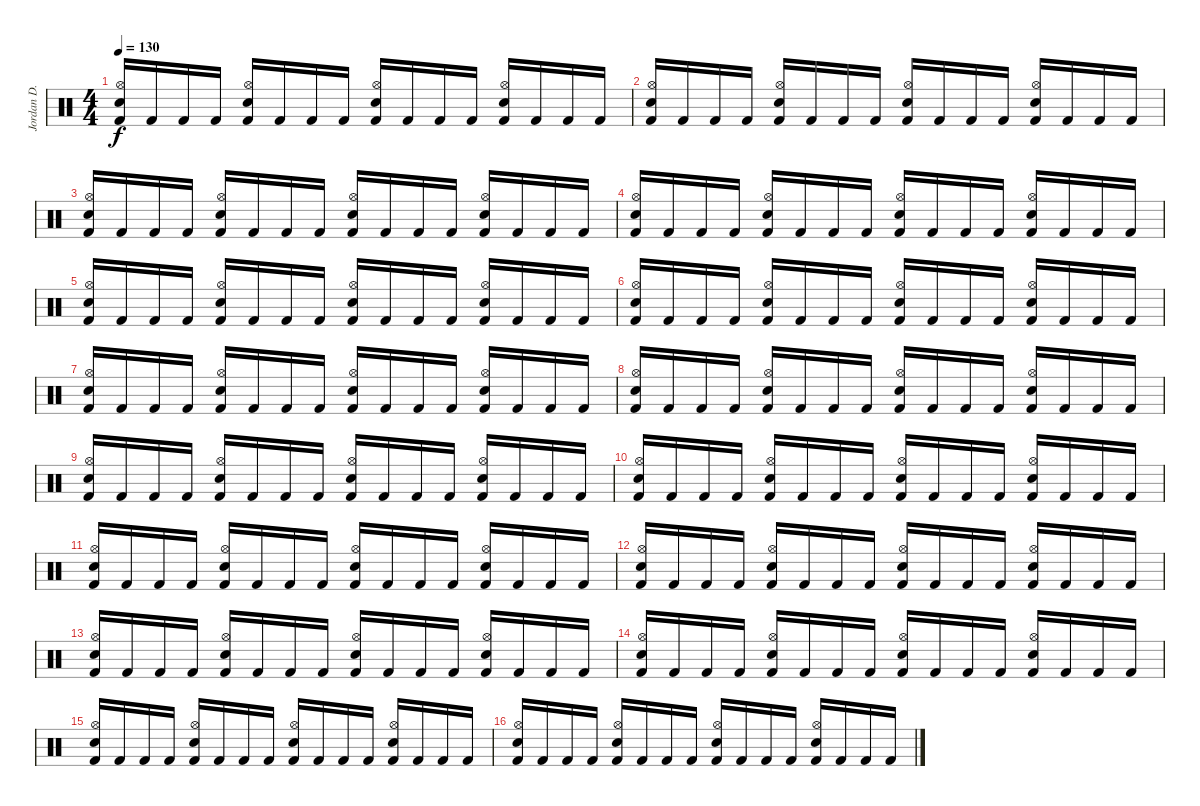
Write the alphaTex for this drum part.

\track ("Jordan D. Samolesky" "Jordan D. ") {instrument percussion}
\staff {score}
\articulation defaults
\ts (4 4)
\tempo 130
\clef neutral
\ks c
("Electric Snare (hit)" "Hi-Hat (open)" "Kick (hit) 2").16{dy f} "Kick (hit) 2".16 "Kick (hit) 2".16 "Kick (hit) 2".16 ("Electric Snare (hit)" "Hi-Hat (open)" "Kick (hit) 2").16 "Kick (hit) 2".16 "Kick (hit) 2".16 "Kick (hit) 2".16 ("Electric Snare (hit)" "Hi-Hat (open)" "Kick (hit) 2").16 "Kick (hit) 2".16 "Kick (hit) 2".16 "Kick (hit) 2".16 ("Electric Snare (hit)" "Hi-Hat (open)" "Kick (hit) 2").16 "Kick (hit) 2".16 "Kick (hit) 2".16 "Kick (hit) 2".16 |
("Electric Snare (hit)" "Hi-Hat (open)" "Kick (hit) 2").16 "Kick (hit) 2".16 "Kick (hit) 2".16 "Kick (hit) 2".16 ("Electric Snare (hit)" "Hi-Hat (open)" "Kick (hit) 2").16 "Kick (hit) 2".16 "Kick (hit) 2".16 "Kick (hit) 2".16 ("Electric Snare (hit)" "Hi-Hat (open)" "Kick (hit) 2").16 "Kick (hit) 2".16 "Kick (hit) 2".16 "Kick (hit) 2".16 ("Electric Snare (hit)" "Hi-Hat (open)" "Kick (hit) 2").16 "Kick (hit) 2".16 "Kick (hit) 2".16 "Kick (hit) 2".16 |
("Electric Snare (hit)" "Hi-Hat (open)" "Kick (hit) 2").16 "Kick (hit) 2".16 "Kick (hit) 2".16 "Kick (hit) 2".16 ("Electric Snare (hit)" "Hi-Hat (open)" "Kick (hit) 2").16 "Kick (hit) 2".16 "Kick (hit) 2".16 "Kick (hit) 2".16 ("Electric Snare (hit)" "Hi-Hat (open)" "Kick (hit) 2").16 "Kick (hit) 2".16 "Kick (hit) 2".16 "Kick (hit) 2".16 ("Electric Snare (hit)" "Hi-Hat (open)" "Kick (hit) 2").16 "Kick (hit) 2".16 "Kick (hit) 2".16 "Kick (hit) 2".16 |
("Electric Snare (hit)" "Hi-Hat (open)" "Kick (hit) 2").16 "Kick (hit) 2".16 "Kick (hit) 2".16 "Kick (hit) 2".16 ("Electric Snare (hit)" "Hi-Hat (open)" "Kick (hit) 2").16 "Kick (hit) 2".16 "Kick (hit) 2".16 "Kick (hit) 2".16 ("Electric Snare (hit)" "Hi-Hat (open)" "Kick (hit) 2").16 "Kick (hit) 2".16 "Kick (hit) 2".16 "Kick (hit) 2".16 ("Electric Snare (hit)" "Hi-Hat (open)" "Kick (hit) 2").16 "Kick (hit) 2".16 "Kick (hit) 2".16 "Kick (hit) 2".16 |
("Electric Snare (hit)" "Hi-Hat (open)" "Kick (hit) 2").16 "Kick (hit) 2".16 "Kick (hit) 2".16 "Kick (hit) 2".16 ("Electric Snare (hit)" "Hi-Hat (open)" "Kick (hit) 2").16 "Kick (hit) 2".16 "Kick (hit) 2".16 "Kick (hit) 2".16 ("Electric Snare (hit)" "Hi-Hat (open)" "Kick (hit) 2").16 "Kick (hit) 2".16 "Kick (hit) 2".16 "Kick (hit) 2".16 ("Electric Snare (hit)" "Hi-Hat (open)" "Kick (hit) 2").16 "Kick (hit) 2".16 "Kick (hit) 2".16 "Kick (hit) 2".16 |
("Electric Snare (hit)" "Hi-Hat (open)" "Kick (hit) 2").16 "Kick (hit) 2".16 "Kick (hit) 2".16 "Kick (hit) 2".16 ("Electric Snare (hit)" "Hi-Hat (open)" "Kick (hit) 2").16 "Kick (hit) 2".16 "Kick (hit) 2".16 "Kick (hit) 2".16 ("Electric Snare (hit)" "Hi-Hat (open)" "Kick (hit) 2").16 "Kick (hit) 2".16 "Kick (hit) 2".16 "Kick (hit) 2".16 ("Electric Snare (hit)" "Hi-Hat (open)" "Kick (hit) 2").16 "Kick (hit) 2".16 "Kick (hit) 2".16 "Kick (hit) 2".16 |
("Electric Snare (hit)" "Hi-Hat (open)" "Kick (hit) 2").16 "Kick (hit) 2".16 "Kick (hit) 2".16 "Kick (hit) 2".16 ("Electric Snare (hit)" "Hi-Hat (open)" "Kick (hit) 2").16 "Kick (hit) 2".16 "Kick (hit) 2".16 "Kick (hit) 2".16 ("Electric Snare (hit)" "Hi-Hat (open)" "Kick (hit) 2").16 "Kick (hit) 2".16 "Kick (hit) 2".16 "Kick (hit) 2".16 ("Electric Snare (hit)" "Hi-Hat (open)" "Kick (hit) 2").16 "Kick (hit) 2".16 "Kick (hit) 2".16 "Kick (hit) 2".16 |
("Electric Snare (hit)" "Hi-Hat (open)" "Kick (hit) 2").16 "Kick (hit) 2".16 "Kick (hit) 2".16 "Kick (hit) 2".16 ("Electric Snare (hit)" "Hi-Hat (open)" "Kick (hit) 2").16 "Kick (hit) 2".16 "Kick (hit) 2".16 "Kick (hit) 2".16 ("Electric Snare (hit)" "Hi-Hat (open)" "Kick (hit) 2").16 "Kick (hit) 2".16 "Kick (hit) 2".16 "Kick (hit) 2".16 ("Electric Snare (hit)" "Hi-Hat (open)" "Kick (hit) 2").16 "Kick (hit) 2".16 "Kick (hit) 2".16 "Kick (hit) 2".16 |
("Electric Snare (hit)" "Hi-Hat (open)" "Kick (hit) 2").16 "Kick (hit) 2".16 "Kick (hit) 2".16 "Kick (hit) 2".16 ("Electric Snare (hit)" "Hi-Hat (open)" "Kick (hit) 2").16 "Kick (hit) 2".16 "Kick (hit) 2".16 "Kick (hit) 2".16 ("Electric Snare (hit)" "Hi-Hat (open)" "Kick (hit) 2").16 "Kick (hit) 2".16 "Kick (hit) 2".16 "Kick (hit) 2".16 ("Electric Snare (hit)" "Hi-Hat (open)" "Kick (hit) 2").16 "Kick (hit) 2".16 "Kick (hit) 2".16 "Kick (hit) 2".16 |
("Electric Snare (hit)" "Hi-Hat (open)" "Kick (hit) 2").16 "Kick (hit) 2".16 "Kick (hit) 2".16 "Kick (hit) 2".16 ("Electric Snare (hit)" "Hi-Hat (open)" "Kick (hit) 2").16 "Kick (hit) 2".16 "Kick (hit) 2".16 "Kick (hit) 2".16 ("Electric Snare (hit)" "Hi-Hat (open)" "Kick (hit) 2").16 "Kick (hit) 2".16 "Kick (hit) 2".16 "Kick (hit) 2".16 ("Electric Snare (hit)" "Hi-Hat (open)" "Kick (hit) 2").16 "Kick (hit) 2".16 "Kick (hit) 2".16 "Kick (hit) 2".16 |
("Electric Snare (hit)" "Hi-Hat (open)" "Kick (hit) 2").16 "Kick (hit) 2".16 "Kick (hit) 2".16 "Kick (hit) 2".16 ("Electric Snare (hit)" "Hi-Hat (open)" "Kick (hit) 2").16 "Kick (hit) 2".16 "Kick (hit) 2".16 "Kick (hit) 2".16 ("Electric Snare (hit)" "Hi-Hat (open)" "Kick (hit) 2").16 "Kick (hit) 2".16 "Kick (hit) 2".16 "Kick (hit) 2".16 ("Electric Snare (hit)" "Hi-Hat (open)" "Kick (hit) 2").16 "Kick (hit) 2".16 "Kick (hit) 2".16 "Kick (hit) 2".16 |
("Electric Snare (hit)" "Hi-Hat (open)" "Kick (hit) 2").16 "Kick (hit) 2".16 "Kick (hit) 2".16 "Kick (hit) 2".16 ("Electric Snare (hit)" "Hi-Hat (open)" "Kick (hit) 2").16 "Kick (hit) 2".16 "Kick (hit) 2".16 "Kick (hit) 2".16 ("Electric Snare (hit)" "Hi-Hat (open)" "Kick (hit) 2").16 "Kick (hit) 2".16 "Kick (hit) 2".16 "Kick (hit) 2".16 ("Electric Snare (hit)" "Hi-Hat (open)" "Kick (hit) 2").16 "Kick (hit) 2".16 "Kick (hit) 2".16 "Kick (hit) 2".16 |
("Electric Snare (hit)" "Hi-Hat (open)" "Kick (hit) 2").16 "Kick (hit) 2".16 "Kick (hit) 2".16 "Kick (hit) 2".16 ("Electric Snare (hit)" "Hi-Hat (open)" "Kick (hit) 2").16 "Kick (hit) 2".16 "Kick (hit) 2".16 "Kick (hit) 2".16 ("Electric Snare (hit)" "Hi-Hat (open)" "Kick (hit) 2").16 "Kick (hit) 2".16 "Kick (hit) 2".16 "Kick (hit) 2".16 ("Electric Snare (hit)" "Hi-Hat (open)" "Kick (hit) 2").16 "Kick (hit) 2".16 "Kick (hit) 2".16 "Kick (hit) 2".16 |
("Electric Snare (hit)" "Hi-Hat (open)" "Kick (hit) 2").16 "Kick (hit) 2".16 "Kick (hit) 2".16 "Kick (hit) 2".16 ("Electric Snare (hit)" "Hi-Hat (open)" "Kick (hit) 2").16 "Kick (hit) 2".16 "Kick (hit) 2".16 "Kick (hit) 2".16 ("Electric Snare (hit)" "Hi-Hat (open)" "Kick (hit) 2").16 "Kick (hit) 2".16 "Kick (hit) 2".16 "Kick (hit) 2".16 ("Electric Snare (hit)" "Hi-Hat (open)" "Kick (hit) 2").16 "Kick (hit) 2".16 "Kick (hit) 2".16 "Kick (hit) 2".16 |
("Electric Snare (hit)" "Hi-Hat (open)" "Kick (hit) 2").16 "Kick (hit) 2".16 "Kick (hit) 2".16 "Kick (hit) 2".16 ("Electric Snare (hit)" "Hi-Hat (open)" "Kick (hit) 2").16 "Kick (hit) 2".16 "Kick (hit) 2".16 "Kick (hit) 2".16 ("Electric Snare (hit)" "Hi-Hat (open)" "Kick (hit) 2").16 "Kick (hit) 2".16 "Kick (hit) 2".16 "Kick (hit) 2".16 ("Electric Snare (hit)" "Hi-Hat (open)" "Kick (hit) 2").16 "Kick (hit) 2".16 "Kick (hit) 2".16 "Kick (hit) 2".16 |
("Electric Snare (hit)" "Hi-Hat (open)" "Kick (hit) 2").16 "Kick (hit) 2".16 "Kick (hit) 2".16 "Kick (hit) 2".16 ("Electric Snare (hit)" "Hi-Hat (open)" "Kick (hit) 2").16 "Kick (hit) 2".16 "Kick (hit) 2".16 "Kick (hit) 2".16 ("Electric Snare (hit)" "Hi-Hat (open)" "Kick (hit) 2").16 "Kick (hit) 2".16 "Kick (hit) 2".16 "Kick (hit) 2".16 ("Electric Snare (hit)" "Hi-Hat (open)" "Kick (hit) 2").16 "Kick (hit) 2".16 "Kick (hit) 2".16 "Kick (hit) 2".16
